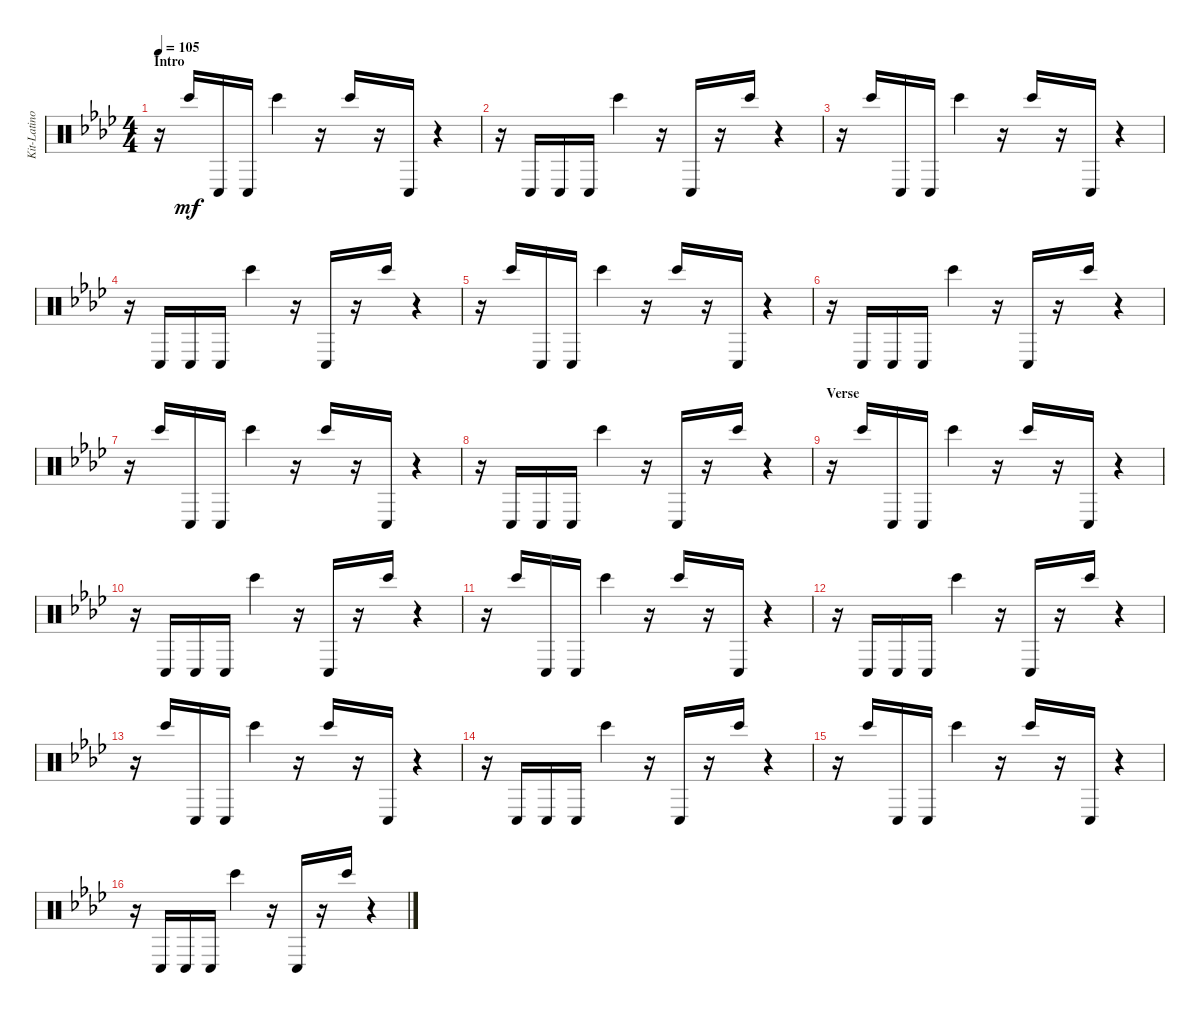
\track ("Kit-Latino" "Kit-Latino") {instrument percussion}
\staff {score}
\articulation defaults
\ts (4 4)
\section ("" "Intro")
\tempo 105
\clef neutral
\ks ab
r.16{dy mf} "Bongo High (hit)".16 "Conga low (hit)".16 "Conga low (hit)".16 "Bongo High (hit)".4 r.16 "Bongo High (hit)".16 r.16 "Conga low (hit)".16 r.4 |
r.16 "Conga low (hit)".16 "Conga low (hit)".16 "Conga low (hit)".16 "Bongo High (hit)".4 r.16 "Conga low (hit)".16 r.16 "Bongo High (hit)".16 r.4 |
r.16 "Bongo High (hit)".16 "Conga low (hit)".16 "Conga low (hit)".16 "Bongo High (hit)".4 r.16 "Bongo High (hit)".16 r.16 "Conga low (hit)".16 r.4 |
r.16 "Conga low (hit)".16 "Conga low (hit)".16 "Conga low (hit)".16 "Bongo High (hit)".4 r.16 "Conga low (hit)".16 r.16 "Bongo High (hit)".16 r.4 |
r.16 "Bongo High (hit)".16 "Conga low (hit)".16 "Conga low (hit)".16 "Bongo High (hit)".4 r.16 "Bongo High (hit)".16 r.16 "Conga low (hit)".16 r.4 |
r.16 "Conga low (hit)".16 "Conga low (hit)".16 "Conga low (hit)".16 "Bongo High (hit)".4 r.16 "Conga low (hit)".16 r.16 "Bongo High (hit)".16 r.4 |
r.16 "Bongo High (hit)".16 "Conga low (hit)".16 "Conga low (hit)".16 "Bongo High (hit)".4 r.16 "Bongo High (hit)".16 r.16 "Conga low (hit)".16 r.4 |
r.16 "Conga low (hit)".16 "Conga low (hit)".16 "Conga low (hit)".16 "Bongo High (hit)".4 r.16 "Conga low (hit)".16 r.16 "Bongo High (hit)".16 r.4 |
\section ("" "Verse")
r.16 "Bongo High (hit)".16 "Conga low (hit)".16 "Conga low (hit)".16 "Bongo High (hit)".4 r.16 "Bongo High (hit)".16 r.16 "Conga low (hit)".16 r.4 |
r.16 "Conga low (hit)".16 "Conga low (hit)".16 "Conga low (hit)".16 "Bongo High (hit)".4 r.16 "Conga low (hit)".16 r.16 "Bongo High (hit)".16 r.4 |
r.16 "Bongo High (hit)".16 "Conga low (hit)".16 "Conga low (hit)".16 "Bongo High (hit)".4 r.16 "Bongo High (hit)".16 r.16 "Conga low (hit)".16 r.4 |
r.16 "Conga low (hit)".16 "Conga low (hit)".16 "Conga low (hit)".16 "Bongo High (hit)".4 r.16 "Conga low (hit)".16 r.16 "Bongo High (hit)".16 r.4 |
r.16 "Bongo High (hit)".16 "Conga low (hit)".16 "Conga low (hit)".16 "Bongo High (hit)".4 r.16 "Bongo High (hit)".16 r.16 "Conga low (hit)".16 r.4 |
r.16 "Conga low (hit)".16 "Conga low (hit)".16 "Conga low (hit)".16 "Bongo High (hit)".4 r.16 "Conga low (hit)".16 r.16 "Bongo High (hit)".16 r.4 |
r.16 "Bongo High (hit)".16 "Conga low (hit)".16 "Conga low (hit)".16 "Bongo High (hit)".4 r.16 "Bongo High (hit)".16 r.16 "Conga low (hit)".16 r.4 |
r.16 "Conga low (hit)".16 "Conga low (hit)".16 "Conga low (hit)".16 "Bongo High (hit)".4 r.16 "Conga low (hit)".16 r.16 "Bongo High (hit)".16 r.4
